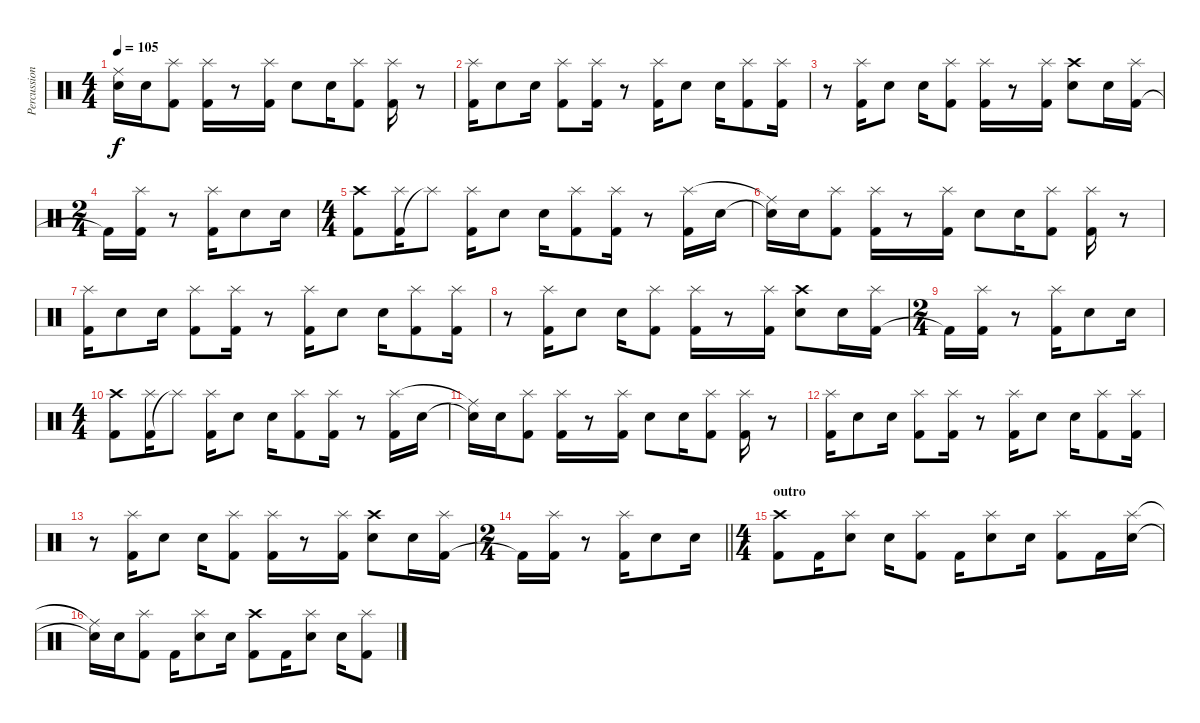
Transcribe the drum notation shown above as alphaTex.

\track ("Percussion" "Percussion") {instrument percussion}
\staff {score}
\articulation defaults
\ts (4 4)
\tempo 105
\clef neutral
\ks c
("Electric Snare (hit)"{t} "Ride (middle)"{t}).16{dy f} "Electric Snare (hit)".16 ("Kick (hit) 2" "Splash (hit)").8 ("Kick (hit) 2" "Splash (hit)").16 r.8 ("Kick (hit) 2" "Splash (hit)").16 "Electric Snare (hit)".8 "Electric Snare (hit)".16 ("Kick (hit) 2" "Splash (hit)").8 ("Kick (hit) 2" "Splash (hit)").16 r.8 |
("Kick (hit) 2" "Splash (hit)").16 "Electric Snare (hit)".8 "Electric Snare (hit)".16 ("Kick (hit) 2" "Splash (hit)").8 ("Kick (hit) 2" "Splash (hit)").16 r.8 ("Kick (hit) 2" "Splash (hit)").16 "Electric Snare (hit)".8 "Electric Snare (hit)".16 ("Kick (hit) 2" "Splash (hit)").8 ("Kick (hit) 2" "Splash (hit)").16 |
r.8 ("Kick (hit) 2" "Splash (hit)").16 "Electric Snare (hit)".8 "Electric Snare (hit)".16 ("Kick (hit) 2" "Splash (hit)").8 ("Kick (hit) 2" "Splash (hit)").16 r.8 ("Kick (hit) 2" "Splash (hit)").16 ("Electric Snare (hit)" "Crash high (hit)").8 "Electric Snare (hit)".16 ("Kick (hit) 2" "Splash (hit)").16 |
\ts (2 4)
"Kick (hit) 2"{t}.16 ("Kick (hit) 2" "Splash (hit)").16 r.8 ("Kick (hit) 2" "Splash (hit)").16 "Electric Snare (hit)".8 "Electric Snare (hit)".16 |
\ts (4 4)
("Kick (hit) 2" "Crash high (hit)").8 ("Kick (hit) 2" "Splash (hit)").16 "Splash (hit)"{t}.8 ("Kick (hit) 2" "Splash (hit)").16 "Electric Snare (hit)".8 "Electric Snare (hit)".16 ("Kick (hit) 2" "Splash (hit)").8 ("Kick (hit) 2" "Splash (hit)").16 r.8 ("Kick (hit) 2" "Splash (hit)").16 "Electric Snare (hit)".16 |
("Electric Snare (hit)"{t} "Ride (middle)"{t}).16 "Electric Snare (hit)".16 ("Kick (hit) 2" "Splash (hit)").8 ("Kick (hit) 2" "Splash (hit)").16 r.8 ("Kick (hit) 2" "Splash (hit)").16 "Electric Snare (hit)".8 "Electric Snare (hit)".16 ("Kick (hit) 2" "Splash (hit)").8 ("Kick (hit) 2" "Splash (hit)").16 r.8 |
("Kick (hit) 2" "Splash (hit)").16 "Electric Snare (hit)".8 "Electric Snare (hit)".16 ("Kick (hit) 2" "Splash (hit)").8 ("Kick (hit) 2" "Splash (hit)").16 r.8 ("Kick (hit) 2" "Splash (hit)").16 "Electric Snare (hit)".8 "Electric Snare (hit)".16 ("Kick (hit) 2" "Splash (hit)").8 ("Kick (hit) 2" "Splash (hit)").16 |
r.8 ("Kick (hit) 2" "Splash (hit)").16 "Electric Snare (hit)".8 "Electric Snare (hit)".16 ("Kick (hit) 2" "Splash (hit)").8 ("Kick (hit) 2" "Splash (hit)").16 r.8 ("Kick (hit) 2" "Splash (hit)").16 ("Electric Snare (hit)" "Crash high (hit)").8 "Electric Snare (hit)".16 ("Kick (hit) 2" "Splash (hit)").16 |
\ts (2 4)
"Kick (hit) 2"{t}.16 ("Kick (hit) 2" "Splash (hit)").16 r.8 ("Kick (hit) 2" "Splash (hit)").16 "Electric Snare (hit)".8 "Electric Snare (hit)".16 |
\ts (4 4)
("Kick (hit) 2" "Crash high (hit)").8 ("Kick (hit) 2" "Splash (hit)").16 "Splash (hit)"{t}.8 ("Kick (hit) 2" "Splash (hit)").16 "Electric Snare (hit)".8 "Electric Snare (hit)".16 ("Kick (hit) 2" "Splash (hit)").8 ("Kick (hit) 2" "Splash (hit)").16 r.8 ("Kick (hit) 2" "Splash (hit)").16 "Electric Snare (hit)".16 |
("Electric Snare (hit)"{t} "Ride (middle)"{t}).16 "Electric Snare (hit)".16 ("Kick (hit) 2" "Splash (hit)").8 ("Kick (hit) 2" "Splash (hit)").16 r.8 ("Kick (hit) 2" "Splash (hit)").16 "Electric Snare (hit)".8 "Electric Snare (hit)".16 ("Kick (hit) 2" "Splash (hit)").8 ("Kick (hit) 2" "Splash (hit)").16 r.8 |
("Kick (hit) 2" "Splash (hit)").16 "Electric Snare (hit)".8 "Electric Snare (hit)".16 ("Kick (hit) 2" "Splash (hit)").8 ("Kick (hit) 2" "Splash (hit)").16 r.8 ("Kick (hit) 2" "Splash (hit)").16 "Electric Snare (hit)".8 "Electric Snare (hit)".16 ("Kick (hit) 2" "Splash (hit)").8 ("Kick (hit) 2" "Splash (hit)").16 |
r.8 ("Kick (hit) 2" "Splash (hit)").16 "Electric Snare (hit)".8 "Electric Snare (hit)".16 ("Kick (hit) 2" "Splash (hit)").8 ("Kick (hit) 2" "Splash (hit)").16 r.8 ("Kick (hit) 2" "Splash (hit)").16 ("Electric Snare (hit)" "Crash high (hit)").8 "Electric Snare (hit)".16 ("Kick (hit) 2" "Splash (hit)").16 |
\ts (2 4)
\barLineRight lightlight "Kick (hit) 2"{t}.16
("Kick (hit) 2" "Splash (hit)").16 r.8 ("Kick (hit) 2" "Splash (hit)").16 "Electric Snare (hit)".8 "Electric Snare (hit)".16 |
\ts (4 4)
\section ("" "outro")
("Kick (hit) 2" "Crash high (hit)").8 "Kick (hit) 2".16 ("Electric Snare (hit)" "Splash (hit)").8 "Electric Snare (hit)".16 ("Kick (hit) 2" "Splash (hit)").8 "Kick (hit) 2".16 ("Electric Snare (hit)" "Splash (hit)").8 "Electric Snare (hit)".16 ("Kick (hit) 2" "Splash (hit)").8 "Kick (hit) 2".16 ("Electric Snare (hit)" "Splash (hit)").16 |
("Electric Snare (hit)"{t} "Ride (middle)"{t}).16 "Electric Snare (hit)".16 ("Kick (hit) 2" "Splash (hit)").8 "Kick (hit) 2".16 ("Electric Snare (hit)" "Splash (hit)").8 "Electric Snare (hit)".16 ("Kick (hit) 2" "Crash high (hit)").8 "Kick (hit) 2".16 ("Electric Snare (hit)" "Splash (hit)").8 "Electric Snare (hit)".16 ("Kick (hit) 2" "Splash (hit)").8
